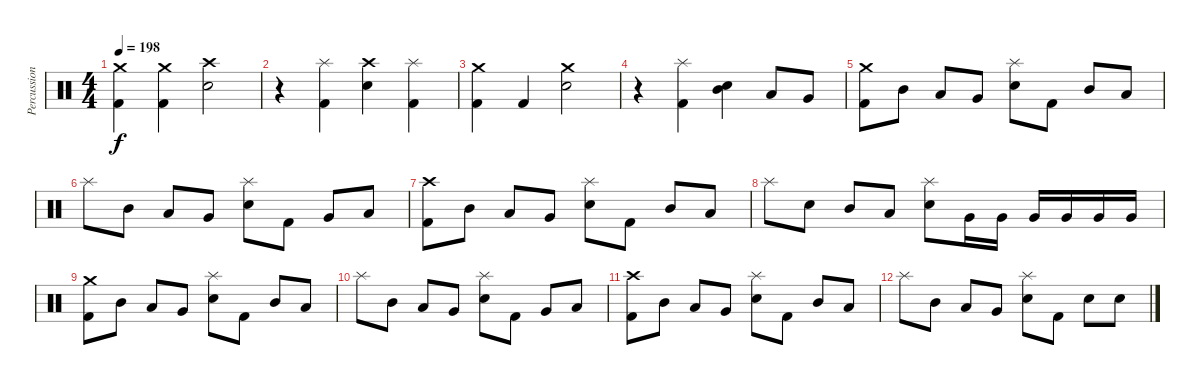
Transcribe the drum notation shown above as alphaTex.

\track ("Percussion" "Percussion") {instrument percussion}
\staff {score}
\articulation defaults
\ts (4 4)
\tempo 198
\clef neutral
\ks c
("Crash medium (hit)" "Kick (hit) 2").4{dy f} ("Crash medium (hit)" "Kick (hit) 2").4 ("Crash high (hit)" "Electric Snare (hit)").2 |
r.4 ("Splash (hit)" "Kick (hit) 2").4 ("Crash high (hit)" "Electric Snare (hit)").4 ("Splash (hit)" "Kick (hit) 2").4 |
("Crash medium (hit)" "Kick (hit) 2").4 "Kick (hit) 2".4 ("Crash medium (hit)" "Electric Snare (hit)").2 |
r.4 ("Splash (hit)" "Kick (hit) 2").4 ("Mid Tom (hit)" "Electric Snare (hit)").4 "Low Tom (hit)".8 "Very Low Tom (hit)".8 |
("Crash medium (hit)" "Kick (hit) 2").8 "Mid Tom (hit)".8 "Low Tom (hit)".8 "Very Low Tom (hit)".8 ("Splash (hit)" "Electric Snare (hit)").8 "Kick (hit) 2".8 "Mid Tom (hit)".8 "Low Tom (hit)".8 |
"Splash (hit)".8 "Mid Tom (hit)".8 "Low Tom (hit)".8 "Very Low Tom (hit)".8 ("Splash (hit)" "Electric Snare (hit)").8 "Kick (hit) 2".8 "Very Low Tom (hit)".8 "Low Floor Tom (hit)".8 |
("Crash high (hit)" "Kick (hit) 2").8 "Mid Tom (hit)".8 "Low Tom (hit)".8 "Very Low Tom (hit)".8 ("Splash (hit)" "Electric Snare (hit)").8 "Kick (hit) 2".8 "Mid Tom (hit)".8 "Low Tom (hit)".8 |
"Splash (hit)".8 "Electric Snare (hit)".8 "Mid Tom (hit)".8 "Low Tom (hit)".8 ("Splash (hit)" "Electric Snare (hit)").8 "Very Low Tom (hit)".16 "Very Low Tom (hit)".16 "Very Low Tom (hit)".16 "Very Low Tom (hit)".16 "Very Low Tom (hit)".16 "Very Low Tom (hit)".16 |
("Crash medium (hit)" "Kick (hit) 2").8 "Mid Tom (hit)".8 "Low Tom (hit)".8 "Very Low Tom (hit)".8 ("Splash (hit)" "Electric Snare (hit)").8 "Kick (hit) 2".8 "Mid Tom (hit)".8 "Low Tom (hit)".8 |
"Splash (hit)".8 "Mid Tom (hit)".8 "Low Tom (hit)".8 "Very Low Tom (hit)".8 ("Splash (hit)" "Electric Snare (hit)").8 "Kick (hit) 2".8 "Very Low Tom (hit)".8 "Low Floor Tom (hit)".8 |
("Crash high (hit)" "Kick (hit) 2").8 "Mid Tom (hit)".8 "Low Tom (hit)".8 "Very Low Tom (hit)".8 ("Splash (hit)" "Electric Snare (hit)").8 "Kick (hit) 2".8 "Mid Tom (hit)".8 "Low Tom (hit)".8 |
"Splash (hit)".8 "Mid Tom (hit)".8 "Low Tom (hit)".8 "Very Low Tom (hit)".8 ("Splash (hit)" "Electric Snare (hit)").8 "Kick (hit) 2".8 "Electric Snare (hit)".8 "Electric Snare (hit)".8
